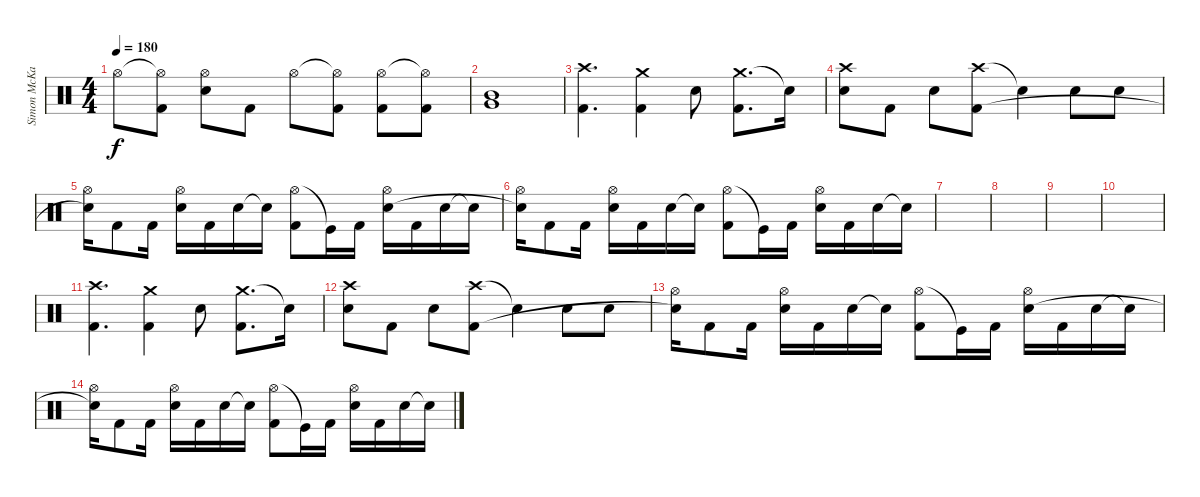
\track ("Simon McKay" "Simon McKa") {instrument percussion}
\staff {score}
\articulation defaults
\ts (4 4)
\tempo 180
\clef neutral
\ks c "Hi-Hat (open)".8{dy f}
("Hi-Hat (open)"{t} "Kick (hit) 2").8 ("Hi-Hat (open)" "Snare (hit) 2").8 "Kick (hit) 2".8 "Hi-Hat (open)".8 ("Hi-Hat (open)"{t} "Kick (hit) 2").8 ("Hi-Hat (open)" "Kick (hit) 2").8 ("Hi-Hat (open)"{t} "Kick (hit) 2").8 |
("Very Low Tom (hit)" "Mid Tom (hit)").1 |
("Crash high (hit)" "Kick (hit) 2").4{d} ("Crash medium (hit)" "Kick (hit) 2").4 "Snare (hit) 2".8 ("Crash medium (hit)" "Kick (hit) 2").8{d} "Snare (hit)"{t}.16 |
("Crash high (hit)" "Snare (hit) 2").8 "Kick (hit) 2".8 "Snare (hit) 2".8 ("Crash high (hit)" "Kick (hit) 2").8 "Snare (hit)"{t}.4 "Snare (hit) 2".8 "Snare (hit) 2".8 |
("Hi-Hat (open)" "Snare (hit)"{t}).16 "Kick (hit) 2".8 "Kick (hit) 2".16 ("Hi-Hat (open)" "Snare (hit) 2").16 "Kick (hit) 2".16 "Snare (hit) 2".16 "Snare (hit)"{t}.16 ("Hi-Hat (open)" "Kick (hit) 2").8 "Kick (hit)"{t}.16 "Kick (hit) 2".16 ("Hi-Hat (open)" "Snare (hit) 2").16 "Kick (hit) 2".16 "Snare (hit) 2".16 "Snare (hit)"{t}.16 |
("Hi-Hat (open)" "Snare (hit)"{t}).16 "Kick (hit) 2".8 "Kick (hit) 2".16 ("Hi-Hat (open)" "Snare (hit) 2").16 "Kick (hit) 2".16 "Snare (hit) 2".16 "Snare (hit)"{t}.16 ("Hi-Hat (open)" "Kick (hit) 2").8 "Kick (hit)"{t}.16 "Kick (hit) 2".16 ("Hi-Hat (open)" "Snare (hit) 2").16 "Kick (hit) 2".16 "Snare (hit) 2".16 "Snare (hit)"{t}.16 |
|
|
|
|
("Crash high (hit)" "Kick (hit) 2").4{d} ("Crash medium (hit)" "Kick (hit) 2").4 "Snare (hit) 2".8 ("Crash medium (hit)" "Kick (hit) 2").8{d} "Snare (hit)"{t}.16 |
("Crash high (hit)" "Snare (hit) 2").8 "Kick (hit) 2".8 "Snare (hit) 2".8 ("Crash high (hit)" "Kick (hit) 2").8 "Snare (hit)"{t}.4 "Snare (hit) 2".8 "Snare (hit) 2".8 |
("Hi-Hat (open)" "Snare (hit)"{t}).16 "Kick (hit) 2".8 "Kick (hit) 2".16 ("Hi-Hat (open)" "Snare (hit) 2").16 "Kick (hit) 2".16 "Snare (hit) 2".16 "Snare (hit)"{t}.16 ("Hi-Hat (open)" "Kick (hit) 2").8 "Kick (hit)"{t}.16 "Kick (hit) 2".16 ("Hi-Hat (open)" "Snare (hit) 2").16 "Kick (hit) 2".16 "Snare (hit) 2".16 "Snare (hit)"{t}.16 |
("Hi-Hat (open)" "Snare (hit)"{t}).16 "Kick (hit) 2".8 "Kick (hit) 2".16 ("Hi-Hat (open)" "Snare (hit) 2").16 "Kick (hit) 2".16 "Snare (hit) 2".16 "Snare (hit)"{t}.16 ("Hi-Hat (open)" "Kick (hit) 2").8 "Kick (hit)"{t}.16 "Kick (hit) 2".16 ("Hi-Hat (open)" "Snare (hit) 2").16 "Kick (hit) 2".16 "Snare (hit) 2".16 "Snare (hit)"{t}.16
